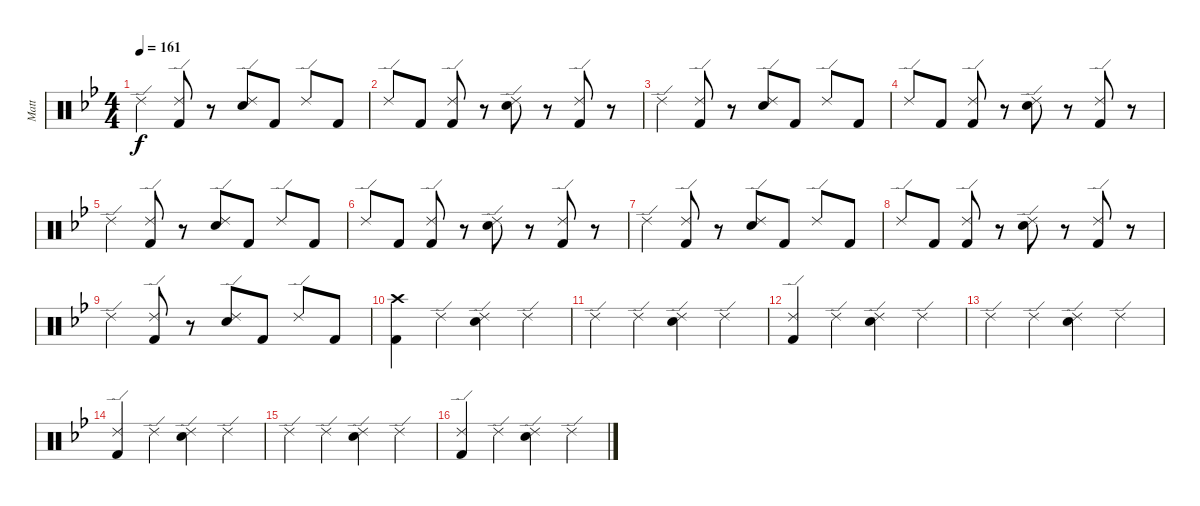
\track ("Matt" "Matt") {instrument percussion}
\staff {score}
\articulation defaults
\ts (4 4)
\tempo 161
\clef neutral
\ks bb "Ride (edge) 2".4{dy f}
("Ride (edge) 2" "Kick (hit) 2").8 r.8 ("Ride (edge) 2" "Snare (hit) 2").8 "Kick (hit) 2".8 "Ride (edge) 2".8 "Kick (hit) 2".8 |
"Ride (edge) 2".8 "Kick (hit) 2".8 ("Ride (edge) 2" "Kick (hit) 2").8 r.8 ("Ride (edge) 2" "Snare (hit) 2").8 r.8 ("Ride (edge) 2" "Kick (hit) 2").8 r.8 |
"Ride (edge) 2".4 ("Ride (edge) 2" "Kick (hit) 2").8 r.8 ("Ride (edge) 2" "Snare (hit) 2").8 "Kick (hit) 2".8 "Ride (edge) 2".8 "Kick (hit) 2".8 |
"Ride (edge) 2".8 "Kick (hit) 2".8 ("Ride (edge) 2" "Kick (hit) 2").8 r.8 ("Ride (edge) 2" "Snare (hit) 2").8 r.8 ("Ride (edge) 2" "Kick (hit) 2").8 r.8 |
"Ride (edge) 2".4 ("Ride (edge) 2" "Kick (hit) 2").8 r.8 ("Ride (edge) 2" "Snare (hit) 2").8 "Kick (hit) 2".8 "Ride (edge) 2".8 "Kick (hit) 2".8 |
"Ride (edge) 2".8 "Kick (hit) 2".8 ("Ride (edge) 2" "Kick (hit) 2").8 r.8 ("Ride (edge) 2" "Snare (hit) 2").8 r.8 ("Ride (edge) 2" "Kick (hit) 2").8 r.8 |
"Ride (edge) 2".4 ("Ride (edge) 2" "Kick (hit) 2").8 r.8 ("Ride (edge) 2" "Snare (hit) 2").8 "Kick (hit) 2".8 "Ride (edge) 2".8 "Kick (hit) 2".8 |
"Ride (edge) 2".8 "Kick (hit) 2".8 ("Ride (edge) 2" "Kick (hit) 2").8 r.8 ("Ride (edge) 2" "Snare (hit) 2").8 r.8 ("Ride (edge) 2" "Kick (hit) 2").8 r.8 |
"Ride (edge) 2".4 ("Ride (edge) 2" "Kick (hit) 2").8 r.8 ("Ride (edge) 2" "Snare (hit) 2").8 "Kick (hit) 2".8 "Ride (edge) 2".8 "Kick (hit) 2".8 |
("Crash high (hit)" "Kick (hit) 2").4 "Ride (edge) 2".4 ("Ride (edge) 2" "Snare (hit) 2").4 "Ride (edge) 2".4 |
"Ride (edge) 2".4 "Ride (edge) 2".4 ("Ride (edge) 2" "Snare (hit) 2").4 "Ride (edge) 2".4 |
("Ride (edge) 2" "Kick (hit) 2").4 "Ride (edge) 2".4 ("Ride (edge) 2" "Snare (hit) 2").4 "Ride (edge) 2".4 |
"Ride (edge) 2".4 "Ride (edge) 2".4 ("Ride (edge) 2" "Snare (hit) 2").4 "Ride (edge) 2".4 |
("Ride (edge) 2" "Kick (hit) 2").4 "Ride (edge) 2".4 ("Ride (edge) 2" "Snare (hit) 2").4 "Ride (edge) 2".4 |
"Ride (edge) 2".4 "Ride (edge) 2".4 ("Ride (edge) 2" "Snare (hit) 2").4 "Ride (edge) 2".4 |
("Ride (edge) 2" "Kick (hit) 2").4 "Ride (edge) 2".4 ("Ride (edge) 2" "Snare (hit) 2").4 "Ride (edge) 2".4
